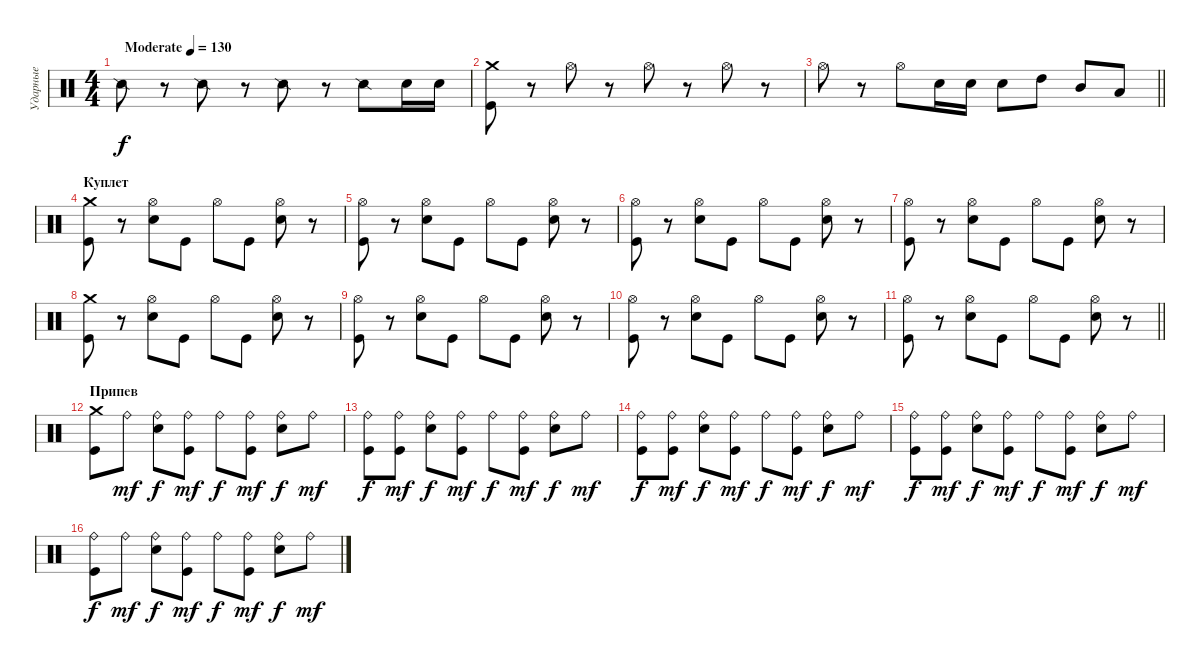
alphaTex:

\track ("Ударные" "Ударные") {instrument percussion}
\staff {score}
\articulation defaults
\ts (4 4)
\tempo (130 "Moderate")
\clef neutral
\ks c "Snare (side stick) 2".8{dy f}
r.8 "Snare (side stick) 2".8 r.8 "Snare (side stick) 2".8 r.8 "Snare (side stick) 2".8 "Electric Snare (hit)".16 "Electric Snare (hit)".16 |
("Crash medium (hit)" "Kick (hit)").8 r.8 "Hi-Hat (open)".8 r.8 "Hi-Hat (open)".8 r.8 "Hi-Hat (open)".8 r.8 |
\barLineRight lightlight "Hi-Hat (open)".8
r.8 "Hi-Hat (open)".8 "Electric Snare (hit)".16 "Electric Snare (hit)".16 "Electric Snare (hit)".8 "High Tom (hit)".8 "Mid Tom (hit)".8 "Low Tom (hit)".8 |
\section ("" "Куплет")
("Crash medium (hit)" "Kick (hit)").8 r.8 ("Hi-Hat (open)" "Electric Snare (hit)").8 "Kick (hit)".8 "Hi-Hat (open)".8 "Kick (hit)".8 ("Hi-Hat (open)" "Electric Snare (hit)").8 r.8 |
("Hi-Hat (open)" "Kick (hit)").8 r.8 ("Hi-Hat (open)" "Electric Snare (hit)").8 "Kick (hit)".8 "Hi-Hat (open)".8 "Kick (hit)".8 ("Hi-Hat (open)" "Electric Snare (hit)").8 r.8 |
("Hi-Hat (open)" "Kick (hit)").8 r.8 ("Hi-Hat (open)" "Electric Snare (hit)").8 "Kick (hit)".8 "Hi-Hat (open)".8 "Kick (hit)".8 ("Hi-Hat (open)" "Electric Snare (hit)").8 r.8 |
("Hi-Hat (open)" "Kick (hit)").8 r.8 ("Hi-Hat (open)" "Electric Snare (hit)").8 "Kick (hit)".8 "Hi-Hat (open)".8 "Kick (hit)".8 ("Hi-Hat (open)" "Electric Snare (hit)").8 r.8 |
("Crash medium (hit)" "Kick (hit)").8 r.8 ("Hi-Hat (open)" "Electric Snare (hit)").8 "Kick (hit)".8 "Hi-Hat (open)".8 "Kick (hit)".8 ("Hi-Hat (open)" "Electric Snare (hit)").8 r.8 |
("Hi-Hat (open)" "Kick (hit)").8 r.8 ("Hi-Hat (open)" "Electric Snare (hit)").8 "Kick (hit)".8 "Hi-Hat (open)".8 "Kick (hit)".8 ("Hi-Hat (open)" "Electric Snare (hit)").8 r.8 |
("Hi-Hat (open)" "Kick (hit)").8 r.8 ("Hi-Hat (open)" "Electric Snare (hit)").8 "Kick (hit)".8 "Hi-Hat (open)".8 "Kick (hit)".8 ("Hi-Hat (open)" "Electric Snare (hit)").8 r.8 |
\barLineRight lightlight
("Hi-Hat (open)" "Kick (hit)").8 r.8 ("Hi-Hat (open)" "Electric Snare (hit)").8 "Kick (hit)".8 "Hi-Hat (open)".8 "Kick (hit)".8 ("Hi-Hat (open)" "Electric Snare (hit)").8 r.8 |
\section ("" "Припев")
("Crash medium (hit)" "Kick (hit)").8 "Ride (bell)".8{dy mf} ("Ride (bell)" "Electric Snare (hit)").8{dy f} ("Ride (bell)" "Kick (hit)").8{dy mf} "Ride (bell)".8{dy f} ("Ride (bell)" "Kick (hit)").8{dy mf} ("Ride (bell)" "Electric Snare (hit)").8{dy f} "Ride (bell)".8{dy mf} |
("Ride (bell)" "Kick (hit)").8{dy f} ("Ride (bell)" "Kick (hit)").8{dy mf} ("Ride (bell)" "Electric Snare (hit)").8{dy f} ("Ride (bell)" "Kick (hit)").8{dy mf} "Ride (bell)".8{dy f} ("Ride (bell)" "Kick (hit)").8{dy mf} ("Ride (bell)" "Electric Snare (hit)").8{dy f} "Ride (bell)".8{dy mf} |
("Ride (bell)" "Kick (hit)").8{dy f} ("Ride (bell)" "Kick (hit)").8{dy mf} ("Ride (bell)" "Electric Snare (hit)").8{dy f} ("Ride (bell)" "Kick (hit)").8{dy mf} "Ride (bell)".8{dy f} ("Ride (bell)" "Kick (hit)").8{dy mf} ("Ride (bell)" "Electric Snare (hit)").8{dy f} "Ride (bell)".8{dy mf} |
("Ride (bell)" "Kick (hit)").8{dy f} ("Ride (bell)" "Kick (hit)").8{dy mf} ("Ride (bell)" "Electric Snare (hit)").8{dy f} ("Ride (bell)" "Kick (hit)").8{dy mf} "Ride (bell)".8{dy f} ("Ride (bell)" "Kick (hit)").8{dy mf} ("Ride (bell)" "Electric Snare (hit)").8{dy f} "Ride (bell)".8{dy mf} |
("Ride (bell)" "Kick (hit)").8{dy f} "Ride (bell)".8{dy mf} ("Ride (bell)" "Electric Snare (hit)").8{dy f} ("Ride (bell)" "Kick (hit)").8{dy mf} "Ride (bell)".8{dy f} ("Ride (bell)" "Kick (hit)").8{dy mf} ("Ride (bell)" "Electric Snare (hit)").8{dy f} "Ride (bell)".8{dy mf}
